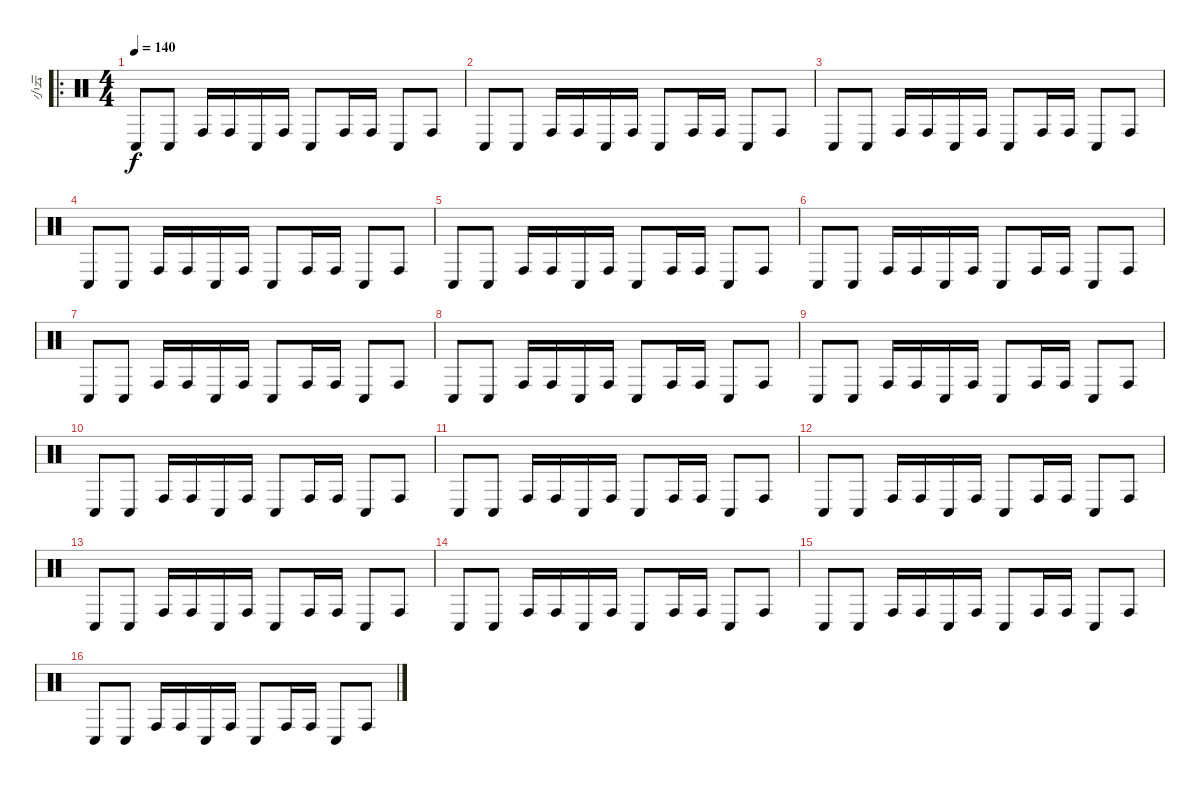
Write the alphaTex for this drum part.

\track ("小云" "小云") {instrument percussion}
\staff {score}
\articulation defaults
\ro
\ts (4 4)
\tempo 140
\clef neutral
\ks c "Conga low (hit)".8{dy f} "Conga low (hit)".8 "Conga high (hit)".16 "Conga high (hit)".16 "Conga low (hit)".16 "Conga high (hit)".16 "Conga low (hit)".8 "Conga high (hit)".16 "Conga high (hit)".16 "Conga low (hit)".8 "Conga high (hit)".8
|
"Conga low (hit)".8 "Conga low (hit)".8 "Conga high (hit)".16 "Conga high (hit)".16 "Conga low (hit)".16 "Conga high (hit)".16 "Conga low (hit)".8 "Conga high (hit)".16 "Conga high (hit)".16 "Conga low (hit)".8 "Conga high (hit)".8 |
"Conga low (hit)".8 "Conga low (hit)".8 "Conga high (hit)".16 "Conga high (hit)".16 "Conga low (hit)".16 "Conga high (hit)".16 "Conga low (hit)".8 "Conga high (hit)".16 "Conga high (hit)".16 "Conga low (hit)".8 "Conga high (hit)".8 |
"Conga low (hit)".8 "Conga low (hit)".8 "Conga high (hit)".16 "Conga high (hit)".16 "Conga low (hit)".16 "Conga high (hit)".16 "Conga low (hit)".8 "Conga high (hit)".16 "Conga high (hit)".16 "Conga low (hit)".8 "Conga high (hit)".8 |
"Conga low (hit)".8 "Conga low (hit)".8 "Conga high (hit)".16 "Conga high (hit)".16 "Conga low (hit)".16 "Conga high (hit)".16 "Conga low (hit)".8 "Conga high (hit)".16 "Conga high (hit)".16 "Conga low (hit)".8 "Conga high (hit)".8 |
"Conga low (hit)".8 "Conga low (hit)".8 "Conga high (hit)".16 "Conga high (hit)".16 "Conga low (hit)".16 "Conga high (hit)".16 "Conga low (hit)".8 "Conga high (hit)".16 "Conga high (hit)".16 "Conga low (hit)".8 "Conga high (hit)".8 |
"Conga low (hit)".8 "Conga low (hit)".8 "Conga high (hit)".16 "Conga high (hit)".16 "Conga low (hit)".16 "Conga high (hit)".16 "Conga low (hit)".8 "Conga high (hit)".16 "Conga high (hit)".16 "Conga low (hit)".8 "Conga high (hit)".8 |
"Conga low (hit)".8 "Conga low (hit)".8 "Conga high (hit)".16 "Conga high (hit)".16 "Conga low (hit)".16 "Conga high (hit)".16 "Conga low (hit)".8 "Conga high (hit)".16 "Conga high (hit)".16 "Conga low (hit)".8 "Conga high (hit)".8 |
"Conga low (hit)".8 "Conga low (hit)".8 "Conga high (hit)".16 "Conga high (hit)".16 "Conga low (hit)".16 "Conga high (hit)".16 "Conga low (hit)".8 "Conga high (hit)".16 "Conga high (hit)".16 "Conga low (hit)".8 "Conga high (hit)".8 |
"Conga low (hit)".8 "Conga low (hit)".8 "Conga high (hit)".16 "Conga high (hit)".16 "Conga low (hit)".16 "Conga high (hit)".16 "Conga low (hit)".8 "Conga high (hit)".16 "Conga high (hit)".16 "Conga low (hit)".8 "Conga high (hit)".8 |
"Conga low (hit)".8 "Conga low (hit)".8 "Conga high (hit)".16 "Conga high (hit)".16 "Conga low (hit)".16 "Conga high (hit)".16 "Conga low (hit)".8 "Conga high (hit)".16 "Conga high (hit)".16 "Conga low (hit)".8 "Conga high (hit)".8 |
"Conga low (hit)".8 "Conga low (hit)".8 "Conga high (hit)".16 "Conga high (hit)".16 "Conga low (hit)".16 "Conga high (hit)".16 "Conga low (hit)".8 "Conga high (hit)".16 "Conga high (hit)".16 "Conga low (hit)".8 "Conga high (hit)".8 |
"Conga low (hit)".8 "Conga low (hit)".8 "Conga high (hit)".16 "Conga high (hit)".16 "Conga low (hit)".16 "Conga high (hit)".16 "Conga low (hit)".8 "Conga high (hit)".16 "Conga high (hit)".16 "Conga low (hit)".8 "Conga high (hit)".8 |
"Conga low (hit)".8 "Conga low (hit)".8 "Conga high (hit)".16 "Conga high (hit)".16 "Conga low (hit)".16 "Conga high (hit)".16 "Conga low (hit)".8 "Conga high (hit)".16 "Conga high (hit)".16 "Conga low (hit)".8 "Conga high (hit)".8 |
"Conga low (hit)".8 "Conga low (hit)".8 "Conga high (hit)".16 "Conga high (hit)".16 "Conga low (hit)".16 "Conga high (hit)".16 "Conga low (hit)".8 "Conga high (hit)".16 "Conga high (hit)".16 "Conga low (hit)".8 "Conga high (hit)".8 |
"Conga low (hit)".8 "Conga low (hit)".8 "Conga high (hit)".16 "Conga high (hit)".16 "Conga low (hit)".16 "Conga high (hit)".16 "Conga low (hit)".8 "Conga high (hit)".16 "Conga high (hit)".16 "Conga low (hit)".8 "Conga high (hit)".8
